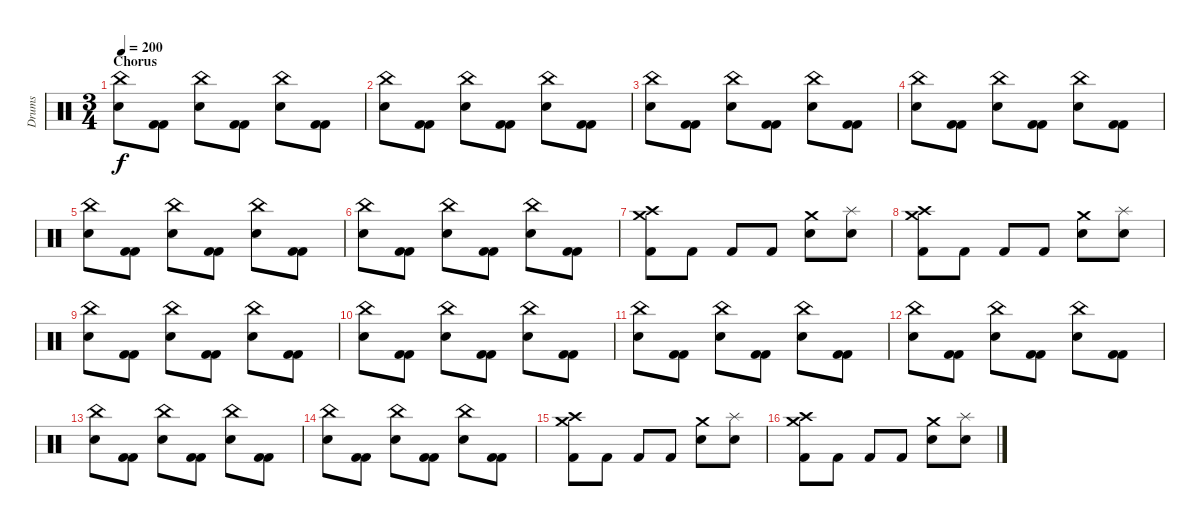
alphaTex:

\track ("Drums" "Drums") {instrument percussion}
\staff {score}
\articulation defaults
\ts (3 4)
\section ("" "Chorus")
\tempo 200
\clef neutral
\ks c
("China (hit)" "Snare (hit) 2").8{dy f} ("Kick (hit) 2" "Kick (hit) 2").8 ("China (hit)" "Snare (hit) 2").8 ("Kick (hit) 2" "Kick (hit) 2").8 ("China (hit)" "Snare (hit) 2").8 ("Kick (hit) 2" "Kick (hit) 2").8 |
("China (hit)" "Snare (hit) 2").8 ("Kick (hit) 2" "Kick (hit) 2").8 ("China (hit)" "Snare (hit) 2").8 ("Kick (hit) 2" "Kick (hit) 2").8 ("China (hit)" "Snare (hit) 2").8 ("Kick (hit) 2" "Kick (hit) 2").8 |
("China (hit)" "Snare (hit) 2").8 ("Kick (hit) 2" "Kick (hit) 2").8 ("China (hit)" "Snare (hit) 2").8 ("Kick (hit) 2" "Kick (hit) 2").8 ("China (hit)" "Snare (hit) 2").8 ("Kick (hit) 2" "Kick (hit) 2").8 |
("China (hit)" "Snare (hit) 2").8 ("Kick (hit) 2" "Kick (hit) 2").8 ("China (hit)" "Snare (hit) 2").8 ("Kick (hit) 2" "Kick (hit) 2").8 ("China (hit)" "Snare (hit) 2").8 ("Kick (hit) 2" "Kick (hit) 2").8 |
("China (hit)" "Snare (hit) 2").8 ("Kick (hit) 2" "Kick (hit) 2").8 ("China (hit)" "Snare (hit) 2").8 ("Kick (hit) 2" "Kick (hit) 2").8 ("China (hit)" "Snare (hit) 2").8 ("Kick (hit) 2" "Kick (hit) 2").8 |
("China (hit)" "Snare (hit) 2").8 ("Kick (hit) 2" "Kick (hit) 2").8 ("China (hit)" "Snare (hit) 2").8 ("Kick (hit) 2" "Kick (hit) 2").8 ("China (hit)" "Snare (hit) 2").8 ("Kick (hit) 2" "Kick (hit) 2").8 |
("Crash medium (hit)" "Crash high (hit)" "Kick (hit) 2").8 "Kick (hit) 2".8 "Kick (hit) 2".8 "Kick (hit) 2".8 ("Crash medium (hit)" "Snare (hit) 2").8 ("Splash (hit)" "Snare (hit) 2").8 |
("Crash medium (hit)" "Crash high (hit)" "Kick (hit) 2").8 "Kick (hit) 2".8 "Kick (hit) 2".8 "Kick (hit) 2".8 ("Crash medium (hit)" "Snare (hit) 2").8 ("Splash (hit)" "Snare (hit) 2").8 |
("China (hit)" "Snare (hit) 2").8 ("Kick (hit) 2" "Kick (hit) 2").8 ("China (hit)" "Snare (hit) 2").8 ("Kick (hit) 2" "Kick (hit) 2").8 ("China (hit)" "Snare (hit) 2").8 ("Kick (hit) 2" "Kick (hit) 2").8 |
("China (hit)" "Snare (hit) 2").8 ("Kick (hit) 2" "Kick (hit) 2").8 ("China (hit)" "Snare (hit) 2").8 ("Kick (hit) 2" "Kick (hit) 2").8 ("China (hit)" "Snare (hit) 2").8 ("Kick (hit) 2" "Kick (hit) 2").8 |
("China (hit)" "Snare (hit) 2").8 ("Kick (hit) 2" "Kick (hit) 2").8 ("China (hit)" "Snare (hit) 2").8 ("Kick (hit) 2" "Kick (hit) 2").8 ("China (hit)" "Snare (hit) 2").8 ("Kick (hit) 2" "Kick (hit) 2").8 |
("China (hit)" "Snare (hit) 2").8 ("Kick (hit) 2" "Kick (hit) 2").8 ("China (hit)" "Snare (hit) 2").8 ("Kick (hit) 2" "Kick (hit) 2").8 ("China (hit)" "Snare (hit) 2").8 ("Kick (hit) 2" "Kick (hit) 2").8 |
("China (hit)" "Snare (hit) 2").8 ("Kick (hit) 2" "Kick (hit) 2").8 ("China (hit)" "Snare (hit) 2").8 ("Kick (hit) 2" "Kick (hit) 2").8 ("China (hit)" "Snare (hit) 2").8 ("Kick (hit) 2" "Kick (hit) 2").8 |
("China (hit)" "Snare (hit) 2").8 ("Kick (hit) 2" "Kick (hit) 2").8 ("China (hit)" "Snare (hit) 2").8 ("Kick (hit) 2" "Kick (hit) 2").8 ("China (hit)" "Snare (hit) 2").8 ("Kick (hit) 2" "Kick (hit) 2").8 |
("Crash medium (hit)" "Crash high (hit)" "Kick (hit) 2").8 "Kick (hit) 2".8 "Kick (hit) 2".8 "Kick (hit) 2".8 ("Crash medium (hit)" "Snare (hit) 2").8 ("Splash (hit)" "Snare (hit) 2").8 |
("Crash medium (hit)" "Crash high (hit)" "Kick (hit) 2").8 "Kick (hit) 2".8 "Kick (hit) 2".8 "Kick (hit) 2".8 ("Crash medium (hit)" "Snare (hit) 2").8 ("Splash (hit)" "Snare (hit) 2").8
